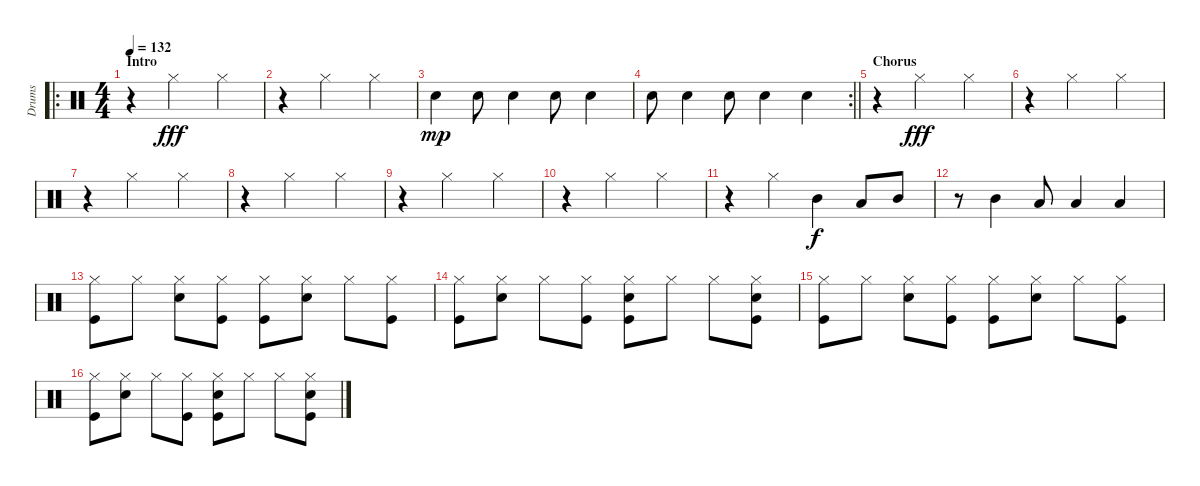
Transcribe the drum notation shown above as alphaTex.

\track ("Drums" "Drums") {instrument percussion}
\staff {score}
\articulation defaults
\ro
\ts (4 4)
\section ("" "Intro")
\tempo 132
\clef neutral
\ks c
r.4{dy fff} "Hi-Hat (closed)".2 "Hi-Hat (closed)".4 |
r.4 "Hi-Hat (closed)".2 "Hi-Hat (closed)".4 |
"Electric Snare (hit)".4{dy mp} "Electric Snare (hit)".8 "Electric Snare (hit)".4 "Electric Snare (hit)".8 "Electric Snare (hit)".4 |
\rc 2
\barLineRight lightlight "Electric Snare (hit)".8 "Electric Snare (hit)".4 "Electric Snare (hit)".8 "Electric Snare (hit)".4 "Electric Snare (hit)".4
|
\section ("" "Chorus")
r.4 "Hi-Hat (closed)".2{dy fff} "Hi-Hat (closed)".4 |
r.4 "Hi-Hat (closed)".2 "Hi-Hat (closed)".4 |
r.4 "Hi-Hat (closed)".2 "Hi-Hat (closed)".4 |
r.4 "Hi-Hat (closed)".2 "Hi-Hat (closed)".4 |
r.4 "Hi-Hat (closed)".2 "Hi-Hat (closed)".4 |
r.4 "Hi-Hat (closed)".2 "Hi-Hat (closed)".4 |
r.4 "Hi-Hat (closed)".4 "Mid Tom (hit)".4{dy f} "Low Tom (hit)".8 "Mid Tom (hit)".8 |
r.8 "Mid Tom (hit)".4 "Low Tom (hit)".8 "Low Tom (hit)".4 "Low Tom (hit)".4 |
("Hi-Hat (closed)" "Kick (hit)").8 "Hi-Hat (closed)".8 ("Hi-Hat (closed)" "Electric Snare (hit)").8 ("Hi-Hat (closed)" "Kick (hit)").8 ("Hi-Hat (closed)" "Kick (hit)").8 ("Hi-Hat (closed)" "Electric Snare (hit)").8 "Hi-Hat (closed)".8 ("Hi-Hat (closed)" "Kick (hit)").8 |
("Hi-Hat (closed)" "Kick (hit)").8 ("Hi-Hat (closed)" "Electric Snare (hit)").8 "Hi-Hat (closed)".8 ("Hi-Hat (closed)" "Kick (hit)").8 ("Hi-Hat (closed)" "Electric Snare (hit)" "Kick (hit)").8 "Hi-Hat (closed)".8 "Hi-Hat (closed)".8 ("Hi-Hat (closed)" "Electric Snare (hit)" "Kick (hit)").8 |
("Hi-Hat (closed)" "Kick (hit)").8 "Hi-Hat (closed)".8 ("Hi-Hat (closed)" "Electric Snare (hit)").8 ("Hi-Hat (closed)" "Kick (hit)").8 ("Hi-Hat (closed)" "Kick (hit)").8 ("Hi-Hat (closed)" "Electric Snare (hit)").8 "Hi-Hat (closed)".8 ("Hi-Hat (closed)" "Kick (hit)").8 |
("Hi-Hat (closed)" "Kick (hit)").8 ("Hi-Hat (closed)" "Electric Snare (hit)").8 "Hi-Hat (closed)".8 ("Hi-Hat (closed)" "Kick (hit)").8 ("Hi-Hat (closed)" "Electric Snare (hit)" "Kick (hit)").8 "Hi-Hat (closed)".8 "Hi-Hat (closed)".8 ("Hi-Hat (closed)" "Electric Snare (hit)" "Kick (hit)").8
